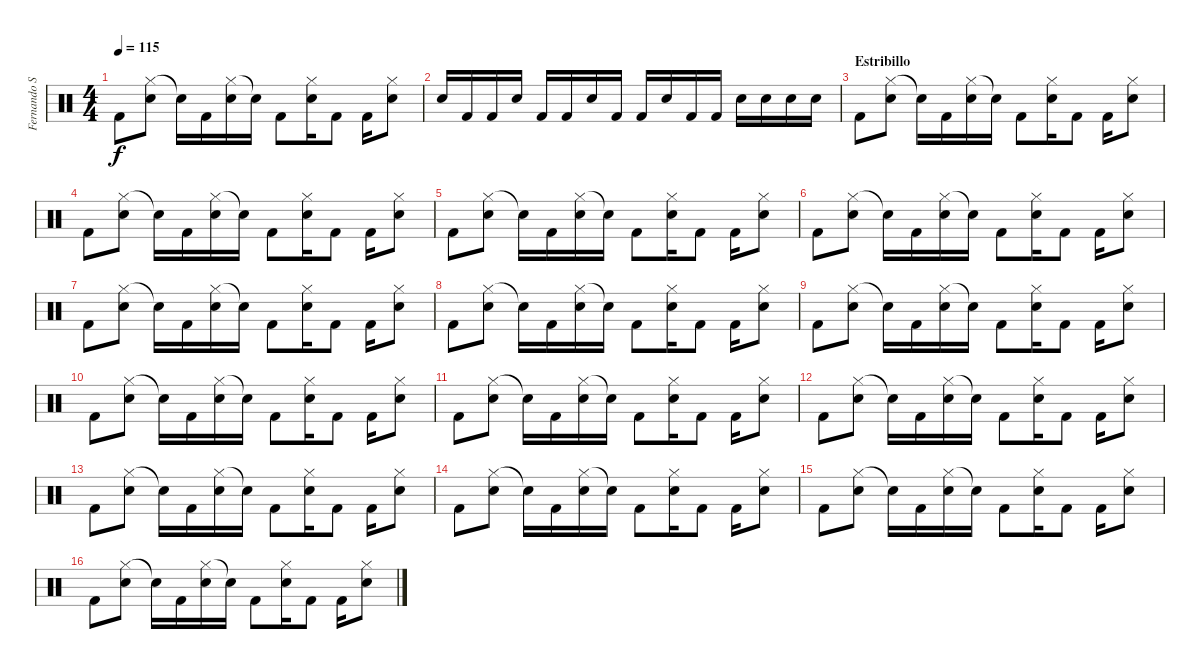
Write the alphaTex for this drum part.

\track ("Fernando Scarcella" "Fernando S") {instrument percussion}
\staff {score}
\articulation defaults
\ts (4 4)
\tempo 115
\clef neutral
\ks c "Kick (hit) 2".8{dy f}
("Hi-Hat (closed)" "Snare (hit) 2").8 "Snare (hit)"{t}.16 "Kick (hit) 2".16 ("Hi-Hat (closed)" "Snare (hit) 2").16 "Snare (hit)"{t}.16 "Kick (hit) 2".8 ("Hi-Hat (closed)" "Snare (hit) 2").16 "Kick (hit) 2".8 "Kick (hit) 2".16 ("Hi-Hat (closed)" "Snare (hit) 2").8 |
"Snare (hit) 2".16 "Kick (hit) 2".16 "Kick (hit) 2".16 "Snare (hit) 2".16 "Kick (hit) 2".16 "Kick (hit) 2".16 "Snare (hit) 2".16 "Kick (hit) 2".16 "Kick (hit) 2".16 "Snare (hit) 2".16 "Kick (hit) 2".16 "Kick (hit) 2".16 "Snare (hit) 2".16 "Snare (hit) 2".16 "Snare (hit) 2".16 "Snare (hit) 2".16 |
\section ("" "Estribillo")
"Kick (hit) 2".8 ("Hi-Hat (closed)" "Snare (hit) 2").8 "Snare (hit)"{t}.16 "Kick (hit) 2".16 ("Hi-Hat (closed)" "Snare (hit) 2").16 "Snare (hit)"{t}.16 "Kick (hit) 2".8 ("Hi-Hat (closed)" "Snare (hit) 2").16 "Kick (hit) 2".8 "Kick (hit) 2".16 ("Hi-Hat (closed)" "Snare (hit) 2").8 |
"Kick (hit) 2".8 ("Hi-Hat (closed)" "Snare (hit) 2").8 "Snare (hit)"{t}.16 "Kick (hit) 2".16 ("Hi-Hat (closed)" "Snare (hit) 2").16 "Snare (hit)"{t}.16 "Kick (hit) 2".8 ("Hi-Hat (closed)" "Snare (hit) 2").16 "Kick (hit) 2".8 "Kick (hit) 2".16 ("Hi-Hat (closed)" "Snare (hit) 2").8 |
"Kick (hit) 2".8 ("Hi-Hat (closed)" "Snare (hit) 2").8 "Snare (hit)"{t}.16 "Kick (hit) 2".16 ("Hi-Hat (closed)" "Snare (hit) 2").16 "Snare (hit)"{t}.16 "Kick (hit) 2".8 ("Hi-Hat (closed)" "Snare (hit) 2").16 "Kick (hit) 2".8 "Kick (hit) 2".16 ("Hi-Hat (closed)" "Snare (hit) 2").8 |
"Kick (hit) 2".8 ("Hi-Hat (closed)" "Snare (hit) 2").8 "Snare (hit)"{t}.16 "Kick (hit) 2".16 ("Hi-Hat (closed)" "Snare (hit) 2").16 "Snare (hit)"{t}.16 "Kick (hit) 2".8 ("Hi-Hat (closed)" "Snare (hit) 2").16 "Kick (hit) 2".8 "Kick (hit) 2".16 ("Hi-Hat (closed)" "Snare (hit) 2").8 |
"Kick (hit) 2".8 ("Hi-Hat (closed)" "Snare (hit) 2").8 "Snare (hit)"{t}.16 "Kick (hit) 2".16 ("Hi-Hat (closed)" "Snare (hit) 2").16 "Snare (hit)"{t}.16 "Kick (hit) 2".8 ("Hi-Hat (closed)" "Snare (hit) 2").16 "Kick (hit) 2".8 "Kick (hit) 2".16 ("Hi-Hat (closed)" "Snare (hit) 2").8 |
"Kick (hit) 2".8 ("Hi-Hat (closed)" "Snare (hit) 2").8 "Snare (hit)"{t}.16 "Kick (hit) 2".16 ("Hi-Hat (closed)" "Snare (hit) 2").16 "Snare (hit)"{t}.16 "Kick (hit) 2".8 ("Hi-Hat (closed)" "Snare (hit) 2").16 "Kick (hit) 2".8 "Kick (hit) 2".16 ("Hi-Hat (closed)" "Snare (hit) 2").8 |
"Kick (hit) 2".8 ("Hi-Hat (closed)" "Snare (hit) 2").8 "Snare (hit)"{t}.16 "Kick (hit) 2".16 ("Hi-Hat (closed)" "Snare (hit) 2").16 "Snare (hit)"{t}.16 "Kick (hit) 2".8 ("Hi-Hat (closed)" "Snare (hit) 2").16 "Kick (hit) 2".8 "Kick (hit) 2".16 ("Hi-Hat (closed)" "Snare (hit) 2").8 |
"Kick (hit) 2".8 ("Hi-Hat (closed)" "Snare (hit) 2").8 "Snare (hit)"{t}.16 "Kick (hit) 2".16 ("Hi-Hat (closed)" "Snare (hit) 2").16 "Snare (hit)"{t}.16 "Kick (hit) 2".8 ("Hi-Hat (closed)" "Snare (hit) 2").16 "Kick (hit) 2".8 "Kick (hit) 2".16 ("Hi-Hat (closed)" "Snare (hit) 2").8 |
"Kick (hit) 2".8 ("Hi-Hat (closed)" "Snare (hit) 2").8 "Snare (hit)"{t}.16 "Kick (hit) 2".16 ("Hi-Hat (closed)" "Snare (hit) 2").16 "Snare (hit)"{t}.16 "Kick (hit) 2".8 ("Hi-Hat (closed)" "Snare (hit) 2").16 "Kick (hit) 2".8 "Kick (hit) 2".16 ("Hi-Hat (closed)" "Snare (hit) 2").8 |
"Kick (hit) 2".8 ("Hi-Hat (closed)" "Snare (hit) 2").8 "Snare (hit)"{t}.16 "Kick (hit) 2".16 ("Hi-Hat (closed)" "Snare (hit) 2").16 "Snare (hit)"{t}.16 "Kick (hit) 2".8 ("Hi-Hat (closed)" "Snare (hit) 2").16 "Kick (hit) 2".8 "Kick (hit) 2".16 ("Hi-Hat (closed)" "Snare (hit) 2").8 |
"Kick (hit) 2".8 ("Hi-Hat (closed)" "Snare (hit) 2").8 "Snare (hit)"{t}.16 "Kick (hit) 2".16 ("Hi-Hat (closed)" "Snare (hit) 2").16 "Snare (hit)"{t}.16 "Kick (hit) 2".8 ("Hi-Hat (closed)" "Snare (hit) 2").16 "Kick (hit) 2".8 "Kick (hit) 2".16 ("Hi-Hat (closed)" "Snare (hit) 2").8 |
"Kick (hit) 2".8 ("Hi-Hat (closed)" "Snare (hit) 2").8 "Snare (hit)"{t}.16 "Kick (hit) 2".16 ("Hi-Hat (closed)" "Snare (hit) 2").16 "Snare (hit)"{t}.16 "Kick (hit) 2".8 ("Hi-Hat (closed)" "Snare (hit) 2").16 "Kick (hit) 2".8 "Kick (hit) 2".16 ("Hi-Hat (closed)" "Snare (hit) 2").8 |
"Kick (hit) 2".8 ("Hi-Hat (closed)" "Snare (hit) 2").8 "Snare (hit)"{t}.16 "Kick (hit) 2".16 ("Hi-Hat (closed)" "Snare (hit) 2").16 "Snare (hit)"{t}.16 "Kick (hit) 2".8 ("Hi-Hat (closed)" "Snare (hit) 2").16 "Kick (hit) 2".8 "Kick (hit) 2".16 ("Hi-Hat (closed)" "Snare (hit) 2").8 |
"Kick (hit) 2".8 ("Hi-Hat (closed)" "Snare (hit) 2").8 "Snare (hit)"{t}.16 "Kick (hit) 2".16 ("Hi-Hat (closed)" "Snare (hit) 2").16 "Snare (hit)"{t}.16 "Kick (hit) 2".8 ("Hi-Hat (closed)" "Snare (hit) 2").16 "Kick (hit) 2".8 "Kick (hit) 2".16 ("Hi-Hat (closed)" "Snare (hit) 2").8
